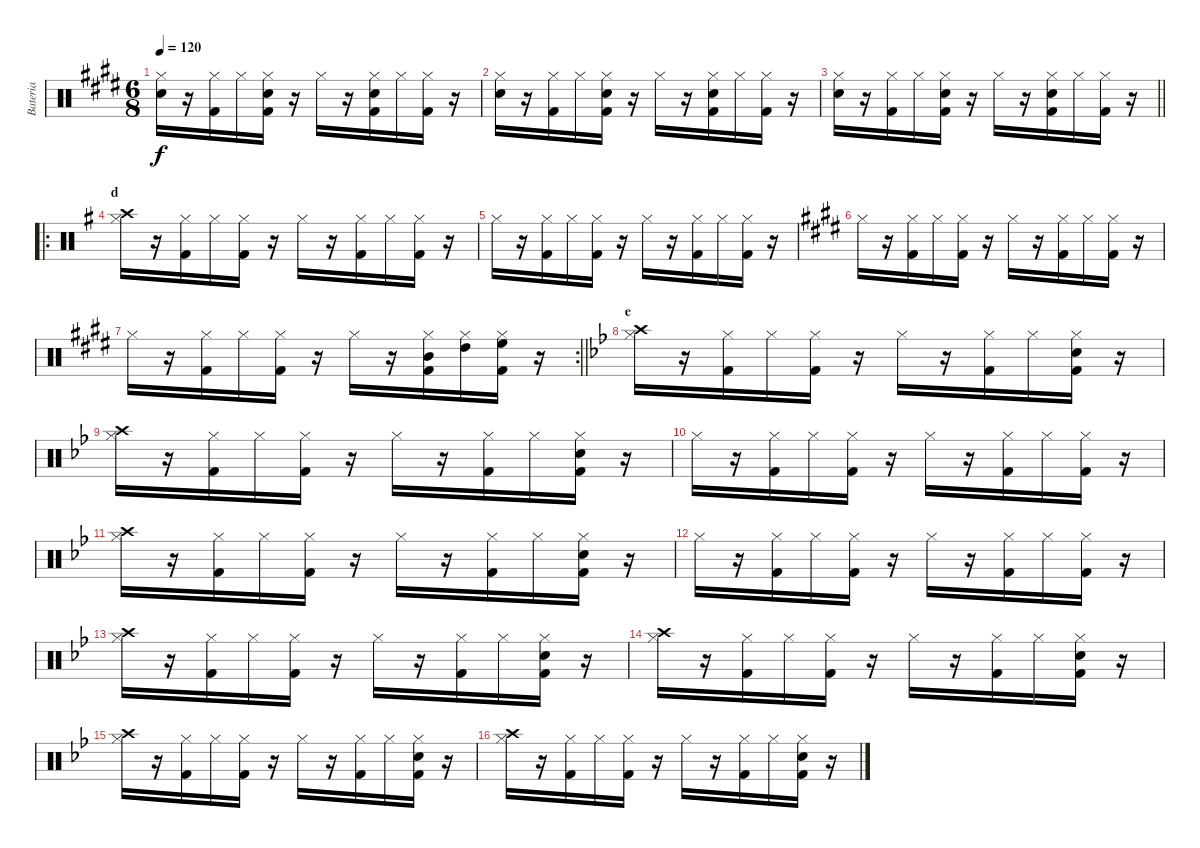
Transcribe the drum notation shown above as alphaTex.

\track ("Bateria" "Bateria") {instrument percussion}
\staff {score}
\articulation defaults
\ts (6 8)
\tempo 120
\clef neutral
\ks e
("Hi-Hat (closed)" "Electric Snare (hit)").16{dy f} r.16 ("Hi-Hat (closed)" "Kick (hit) 2").16 "Hi-Hat (closed)".16 ("Hi-Hat (closed)" "Kick (hit) 2" "Electric Snare (hit)").16 r.16 "Hi-Hat (closed)".16 r.16 ("Hi-Hat (closed)" "Kick (hit) 2" "Electric Snare (hit)").16 "Hi-Hat (closed)".16 ("Hi-Hat (closed)" "Kick (hit) 2").16 r.16 |
("Hi-Hat (closed)" "Electric Snare (hit)").16 r.16 ("Hi-Hat (closed)" "Kick (hit) 2").16 "Hi-Hat (closed)".16 ("Hi-Hat (closed)" "Kick (hit) 2" "Electric Snare (hit)").16 r.16 "Hi-Hat (closed)".16 r.16 ("Hi-Hat (closed)" "Kick (hit) 2" "Electric Snare (hit)").16 "Hi-Hat (closed)".16 ("Hi-Hat (closed)" "Kick (hit) 2").16 r.16 |
\barLineRight lightlight
("Hi-Hat (closed)" "Electric Snare (hit)").16 r.16 ("Hi-Hat (closed)" "Kick (hit) 2").16 "Hi-Hat (closed)".16 ("Hi-Hat (closed)" "Kick (hit) 2" "Electric Snare (hit)").16 r.16 "Hi-Hat (closed)".16 r.16 ("Hi-Hat (closed)" "Kick (hit) 2" "Electric Snare (hit)").16 "Hi-Hat (closed)".16 ("Hi-Hat (closed)" "Kick (hit) 2").16 r.16 |
\ro
\section ("" "d")
\ks g
("Hi-Hat (closed)" "Crash high (hit)").16 r.16 ("Hi-Hat (closed)" "Kick (hit) 2").16 "Hi-Hat (closed)".16 ("Hi-Hat (closed)" "Kick (hit) 2").16 r.16 "Hi-Hat (closed)".16 r.16 ("Hi-Hat (closed)" "Kick (hit) 2").16 "Hi-Hat (closed)".16 ("Hi-Hat (closed)" "Kick (hit) 2").16 r.16 |
"Hi-Hat (closed)".16 r.16 ("Hi-Hat (closed)" "Kick (hit) 2").16 "Hi-Hat (closed)".16 ("Hi-Hat (closed)" "Kick (hit) 2").16 r.16 "Hi-Hat (closed)".16 r.16 ("Hi-Hat (closed)" "Kick (hit) 2").16 "Hi-Hat (closed)".16 ("Hi-Hat (closed)" "Kick (hit) 2").16 r.16 |
\ks e "Hi-Hat (closed)".16
r.16 ("Hi-Hat (closed)" "Kick (hit) 2").16 "Hi-Hat (closed)".16 ("Hi-Hat (closed)" "Kick (hit) 2").16 r.16 "Hi-Hat (closed)".16 r.16 ("Hi-Hat (closed)" "Kick (hit) 2").16 "Hi-Hat (closed)".16 ("Hi-Hat (closed)" "Kick (hit) 2").16 r.16 |
\rc 2
\barLineRight lightlight "Hi-Hat (closed)".16
r.16 ("Hi-Hat (closed)" "Kick (hit) 2").16 "Hi-Hat (closed)".16 ("Hi-Hat (closed)" "Kick (hit) 2").16 r.16 "Hi-Hat (closed)".16 r.16 ("Hi-Hat (closed)" "Kick (hit) 2" "Mid Tom (hit)").16 ("Hi-Hat (closed)" "High Tom (hit)").16 ("Hi-Hat (closed)" "Kick (hit) 2" "High Floor Tom (hit)").16 r.16 |
\section ("" "e")
\ks bb
("Hi-Hat (closed)" "Crash high (hit)").16 r.16 ("Hi-Hat (closed)" "Kick (hit) 2").16 "Hi-Hat (closed)".16 ("Hi-Hat (closed)" "Kick (hit) 2").16 r.16 "Hi-Hat (closed)".16 r.16 ("Hi-Hat (closed)" "Kick (hit) 2").16 "Hi-Hat (closed)".16 ("Hi-Hat (closed)" "Kick (hit) 2" "Electric Snare (hit)").16 r.16 |
("Hi-Hat (closed)" "Crash high (hit)").16 r.16 ("Hi-Hat (closed)" "Kick (hit) 2").16 "Hi-Hat (closed)".16 ("Hi-Hat (closed)" "Kick (hit) 2").16 r.16 "Hi-Hat (closed)".16 r.16 ("Hi-Hat (closed)" "Kick (hit) 2").16 "Hi-Hat (closed)".16 ("Hi-Hat (closed)" "Kick (hit) 2" "Electric Snare (hit)").16 r.16 |
"Hi-Hat (closed)".16 r.16 ("Hi-Hat (closed)" "Kick (hit) 2").16 "Hi-Hat (closed)".16 ("Hi-Hat (closed)" "Kick (hit) 2").16 r.16 "Hi-Hat (closed)".16 r.16 ("Hi-Hat (closed)" "Kick (hit) 2").16 "Hi-Hat (closed)".16 ("Hi-Hat (closed)" "Kick (hit) 2").16 r.16 |
("Hi-Hat (closed)" "Crash high (hit)").16 r.16 ("Hi-Hat (closed)" "Kick (hit) 2").16 "Hi-Hat (closed)".16 ("Hi-Hat (closed)" "Kick (hit) 2").16 r.16 "Hi-Hat (closed)".16 r.16 ("Hi-Hat (closed)" "Kick (hit) 2").16 "Hi-Hat (closed)".16 ("Hi-Hat (closed)" "Kick (hit) 2" "Electric Snare (hit)").16 r.16 |
"Hi-Hat (closed)".16 r.16 ("Hi-Hat (closed)" "Kick (hit) 2").16 "Hi-Hat (closed)".16 ("Hi-Hat (closed)" "Kick (hit) 2").16 r.16 "Hi-Hat (closed)".16 r.16 ("Hi-Hat (closed)" "Kick (hit) 2").16 "Hi-Hat (closed)".16 ("Hi-Hat (closed)" "Kick (hit) 2").16 r.16 |
("Hi-Hat (closed)" "Crash high (hit)").16 r.16 ("Hi-Hat (closed)" "Kick (hit) 2").16 "Hi-Hat (closed)".16 ("Hi-Hat (closed)" "Kick (hit) 2").16 r.16 "Hi-Hat (closed)".16 r.16 ("Hi-Hat (closed)" "Kick (hit) 2").16 "Hi-Hat (closed)".16 ("Hi-Hat (closed)" "Kick (hit) 2" "Electric Snare (hit)").16 r.16 |
("Hi-Hat (closed)" "Crash high (hit)").16 r.16 ("Hi-Hat (closed)" "Kick (hit) 2").16 "Hi-Hat (closed)".16 ("Hi-Hat (closed)" "Kick (hit) 2").16 r.16 "Hi-Hat (closed)".16 r.16 ("Hi-Hat (closed)" "Kick (hit) 2").16 "Hi-Hat (closed)".16 ("Hi-Hat (closed)" "Kick (hit) 2" "Electric Snare (hit)").16 r.16 |
("Hi-Hat (closed)" "Crash high (hit)").16 r.16 ("Hi-Hat (closed)" "Kick (hit) 2").16 "Hi-Hat (closed)".16 ("Hi-Hat (closed)" "Kick (hit) 2").16 r.16 "Hi-Hat (closed)".16 r.16 ("Hi-Hat (closed)" "Kick (hit) 2").16 "Hi-Hat (closed)".16 ("Hi-Hat (closed)" "Kick (hit) 2" "Electric Snare (hit)").16 r.16 |
("Hi-Hat (closed)" "Crash high (hit)").16 r.16 ("Hi-Hat (closed)" "Kick (hit) 2").16 "Hi-Hat (closed)".16 ("Hi-Hat (closed)" "Kick (hit) 2").16 r.16 "Hi-Hat (closed)".16 r.16 ("Hi-Hat (closed)" "Kick (hit) 2").16 "Hi-Hat (closed)".16 ("Hi-Hat (closed)" "Kick (hit) 2" "Electric Snare (hit)").16 r.16
